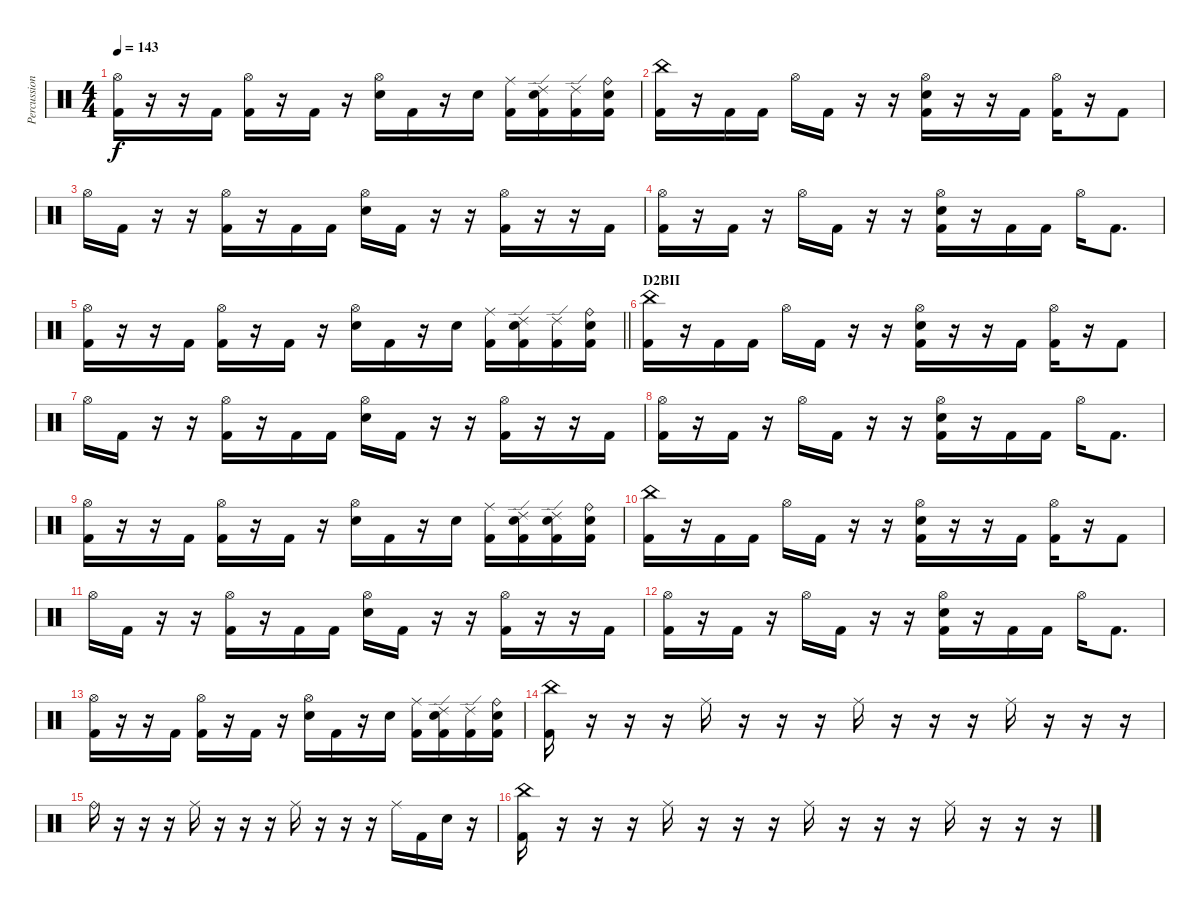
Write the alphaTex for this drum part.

\track ("Percussion" "Percussion") {instrument percussion}
\staff {score}
\articulation defaults
\ts (4 4)
\tempo 143
\clef neutral
\ks c
("Hi-Hat (open)" "Kick (hit) 2").16{dy f} r.16 r.16 "Kick (hit) 2".16 ("Hi-Hat (open)" "Kick (hit) 2").16 r.16 "Kick (hit) 2".16 r.16 ("Hi-Hat (open)" "Electric Snare (hit)").16 "Kick (hit) 2".16 r.16 "Electric Snare (hit)".16 ("Ride (middle)" "Kick (hit) 2").16 ("Ride (edge) 2" "Electric Snare (hit)" "Kick (hit) 2").16 ("Ride (edge) 2" "Kick (hit) 2").16 ("Ride (bell)" "Electric Snare (hit)" "Kick (hit) 2").16 |
("China (hit)" "Kick (hit) 2").16 r.16 "Kick (hit) 2".16 "Kick (hit) 2".16 "Hi-Hat (open)".16 "Kick (hit) 2".16 r.16 r.16 ("Hi-Hat (open)" "Electric Snare (hit)" "Kick (hit) 2").16 r.16 r.16 "Kick (hit) 2".16 ("Hi-Hat (open)" "Kick (hit) 2").16 r.16 "Kick (hit) 2".8 |
"Hi-Hat (open)".16 "Kick (hit) 2".16 r.16 r.16 ("Hi-Hat (open)" "Kick (hit) 2").16 r.16 "Kick (hit) 2".16 "Kick (hit) 2".16 ("Hi-Hat (open)" "Electric Snare (hit)").16 "Kick (hit) 2".16 r.16 r.16 ("Hi-Hat (open)" "Kick (hit) 2").16 r.16 r.16 "Kick (hit) 2".16 |
("Hi-Hat (open)" "Kick (hit) 2").16 r.16 "Kick (hit) 2".16 r.16 "Hi-Hat (open)".16 "Kick (hit) 2".16 r.16 r.16 ("Hi-Hat (open)" "Electric Snare (hit)" "Kick (hit) 2").16 r.16 "Kick (hit) 2".16 "Kick (hit) 2".16 "Hi-Hat (open)".16 "Kick (hit) 2".8{d} |
\barLineRight lightlight
("Hi-Hat (open)" "Kick (hit) 2").16 r.16 r.16 "Kick (hit) 2".16 ("Hi-Hat (open)" "Kick (hit) 2").16 r.16 "Kick (hit) 2".16 r.16 ("Hi-Hat (open)" "Electric Snare (hit)").16 "Kick (hit) 2".16 r.16 "Electric Snare (hit)".16 ("Ride (middle)" "Kick (hit) 2").16 ("Ride (edge) 2" "Electric Snare (hit)" "Kick (hit) 2").16 ("Ride (edge) 2" "Kick (hit) 2").16 ("Ride (bell)" "Electric Snare (hit)" "Kick (hit) 2").16 |
\section ("" "D2BII")
("China (hit)" "Kick (hit) 2").16 r.16 "Kick (hit) 2".16 "Kick (hit) 2".16 "Hi-Hat (open)".16 "Kick (hit) 2".16 r.16 r.16 ("Hi-Hat (open)" "Electric Snare (hit)" "Kick (hit) 2").16 r.16 r.16 "Kick (hit) 2".16 ("Hi-Hat (open)" "Kick (hit) 2").16 r.16 "Kick (hit) 2".8 |
"Hi-Hat (open)".16 "Kick (hit) 2".16 r.16 r.16 ("Hi-Hat (open)" "Kick (hit) 2").16 r.16 "Kick (hit) 2".16 "Kick (hit) 2".16 ("Hi-Hat (open)" "Electric Snare (hit)").16 "Kick (hit) 2".16 r.16 r.16 ("Hi-Hat (open)" "Kick (hit) 2").16 r.16 r.16 "Kick (hit) 2".16 |
("Hi-Hat (open)" "Kick (hit) 2").16 r.16 "Kick (hit) 2".16 r.16 "Hi-Hat (open)".16 "Kick (hit) 2".16 r.16 r.16 ("Hi-Hat (open)" "Electric Snare (hit)" "Kick (hit) 2").16 r.16 "Kick (hit) 2".16 "Kick (hit) 2".16 "Hi-Hat (open)".16 "Kick (hit) 2".8{d} |
("Hi-Hat (open)" "Kick (hit) 2").16 r.16 r.16 "Kick (hit) 2".16 ("Hi-Hat (open)" "Kick (hit) 2").16 r.16 "Kick (hit) 2".16 r.16 ("Hi-Hat (open)" "Electric Snare (hit)").16 "Kick (hit) 2".16 r.16 "Electric Snare (hit)".16 ("Ride (middle)" "Kick (hit) 2").16 ("Ride (edge) 2" "Electric Snare (hit)" "Kick (hit) 2").16 ("Ride (edge) 2" "Electric Snare (hit)" "Kick (hit) 2").16 ("Ride (bell)" "Electric Snare (hit)" "Kick (hit) 2").16 |
("China (hit)" "Kick (hit) 2").16 r.16 "Kick (hit) 2".16 "Kick (hit) 2".16 "Hi-Hat (open)".16 "Kick (hit) 2".16 r.16 r.16 ("Hi-Hat (open)" "Electric Snare (hit)" "Kick (hit) 2").16 r.16 r.16 "Kick (hit) 2".16 ("Hi-Hat (open)" "Kick (hit) 2").16 r.16 "Kick (hit) 2".8 |
"Hi-Hat (open)".16 "Kick (hit) 2".16 r.16 r.16 ("Hi-Hat (open)" "Kick (hit) 2").16 r.16 "Kick (hit) 2".16 "Kick (hit) 2".16 ("Hi-Hat (open)" "Electric Snare (hit)").16 "Kick (hit) 2".16 r.16 r.16 ("Hi-Hat (open)" "Kick (hit) 2").16 r.16 r.16 "Kick (hit) 2".16 |
("Hi-Hat (open)" "Kick (hit) 2").16 r.16 "Kick (hit) 2".16 r.16 "Hi-Hat (open)".16 "Kick (hit) 2".16 r.16 r.16 ("Hi-Hat (open)" "Electric Snare (hit)" "Kick (hit) 2").16 r.16 "Kick (hit) 2".16 "Kick (hit) 2".16 "Hi-Hat (open)".16 "Kick (hit) 2".8{d} |
("Hi-Hat (open)" "Kick (hit) 2").16 r.16 r.16 "Kick (hit) 2".16 ("Hi-Hat (open)" "Kick (hit) 2").16 r.16 "Kick (hit) 2".16 r.16 ("Hi-Hat (open)" "Electric Snare (hit)").16 "Kick (hit) 2".16 r.16 "Electric Snare (hit)".16 ("Ride (middle)" "Kick (hit) 2").16 ("Ride (edge) 2" "Electric Snare (hit)" "Kick (hit) 2").16 ("Ride (edge) 2" "Kick (hit) 2").16 ("Ride (bell)" "Electric Snare (hit)" "Kick (hit) 2").16 |
("China (hit)" "Kick (hit) 2").16 r.16 r.16 r.16 "Ride (middle)".16 r.16 r.16 r.16 "Ride (middle)".16 r.16 r.16 r.16 "Ride (middle)".16 r.16 r.16 r.16 |
"Ride (bell)".16 r.16 r.16 r.16 "Ride (middle)".16 r.16 r.16 r.16 "Ride (middle)".16 r.16 r.16 r.16 "Ride (middle)".16 "Kick (hit) 2".16 "Electric Snare (hit)".16 r.16 |
("China (hit)" "Kick (hit) 2").16 r.16 r.16 r.16 "Ride (middle)".16 r.16 r.16 r.16 "Ride (middle)".16 r.16 r.16 r.16 "Ride (middle)".16 r.16 r.16 r.16
